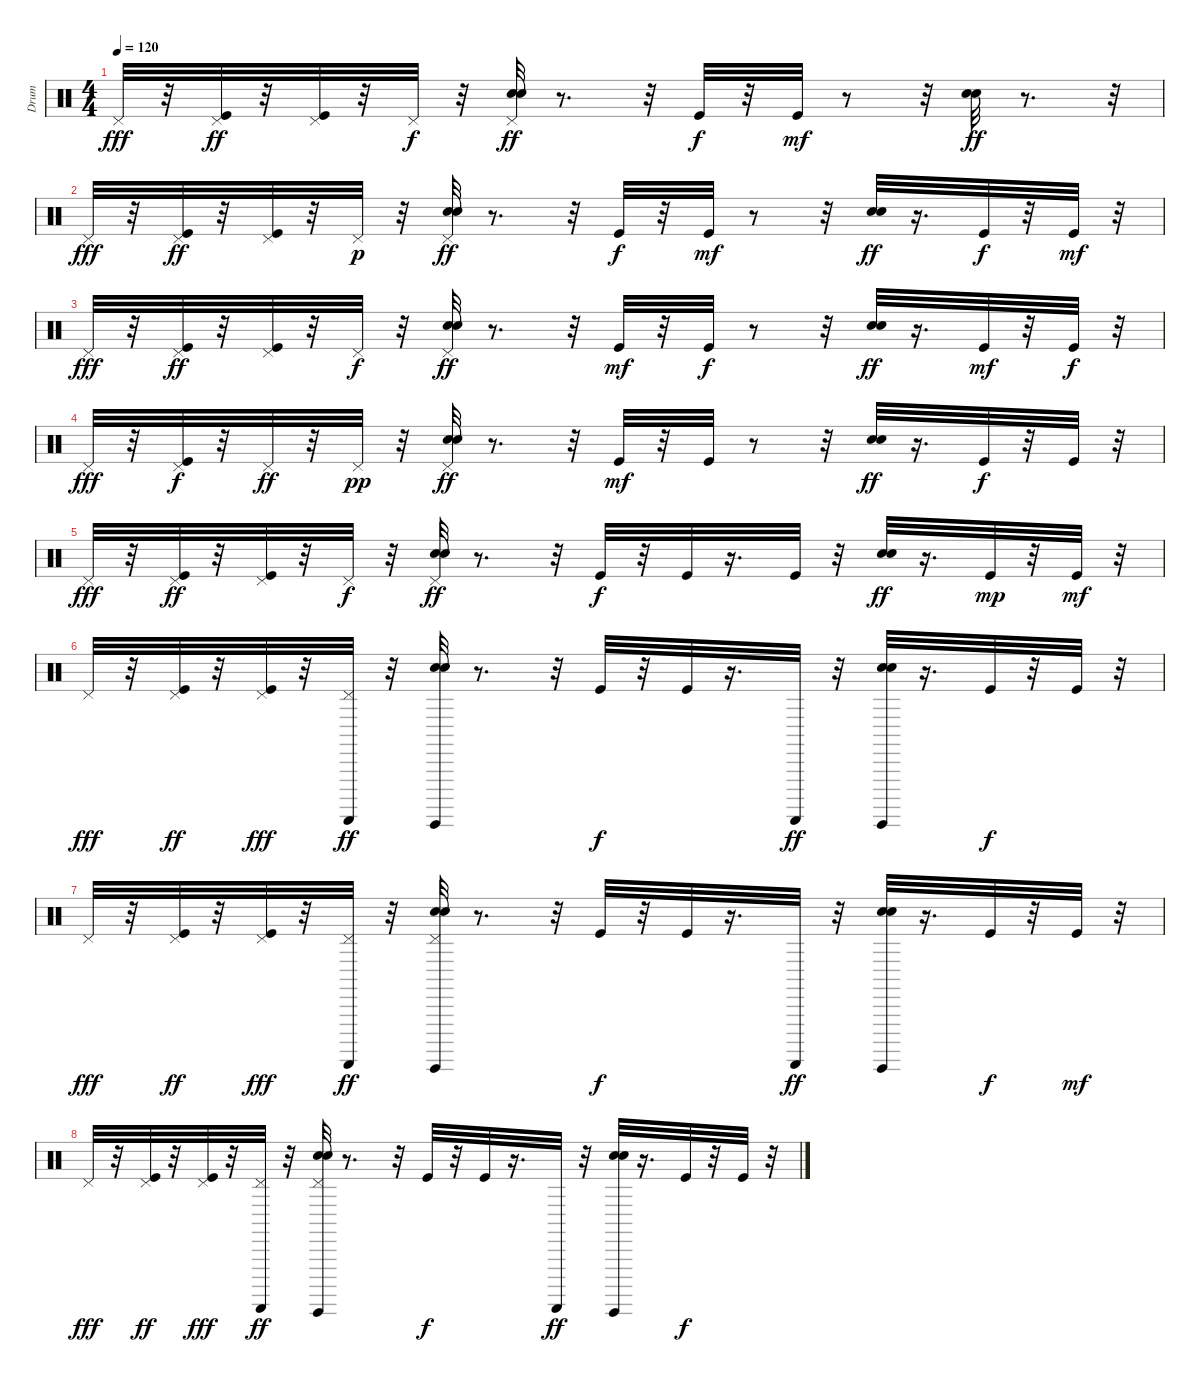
\track ("Drum" "Drum") {instrument percussion}
\staff {score}
\articulation defaults
\ts (4 4)
\tempo 120
\clef neutral
\ks c "Pedal Hi-Hat (hit)".32{dy fff}
r.32 ("Kick (hit)" "Pedal Hi-Hat (hit)").32{dy ff} r.32 ("Kick (hit)" "Pedal Hi-Hat (hit)").32 r.32 "Pedal Hi-Hat (hit)".32{dy f} r.32 ("Snare (hit) 2" "Electric Snare (hit)" "Pedal Hi-Hat (hit)").32{dy ff} r.8{d} r.32 "Kick (hit)".32{dy f} r.32 "Kick (hit)".32{dy mf} r.8 r.32 ("Snare (hit) 2" "Electric Snare (hit)").32{dy ff} r.8{d} r.32 |
"Pedal Hi-Hat (hit)".32{dy fff} r.32 ("Kick (hit)" "Pedal Hi-Hat (hit)").32{dy ff} r.32 ("Kick (hit)" "Pedal Hi-Hat (hit)").32 r.32 "Pedal Hi-Hat (hit)".32{dy p} r.32 ("Snare (hit) 2" "Electric Snare (hit)" "Pedal Hi-Hat (hit)").32{dy ff} r.8{d} r.32 "Kick (hit)".32{dy f} r.32 "Kick (hit)".32{dy mf} r.8 r.32 ("Snare (hit) 2" "Electric Snare (hit)").32{dy ff} r.16{d} "Kick (hit)".32{dy f} r.32 "Kick (hit)".32{dy mf} r.32 |
"Pedal Hi-Hat (hit)".32{dy fff} r.32 ("Pedal Hi-Hat (hit)" "Kick (hit)").32{dy ff} r.32 ("Kick (hit)" "Pedal Hi-Hat (hit)").32 r.32 "Pedal Hi-Hat (hit)".32{dy f} r.32 ("Electric Snare (hit)" "Snare (hit) 2" "Pedal Hi-Hat (hit)").32{dy ff} r.8{d} r.32 "Kick (hit)".32{dy mf} r.32 "Kick (hit)".32{dy f} r.8 r.32 ("Electric Snare (hit)" "Snare (hit) 2").32{dy ff} r.16{d} "Kick (hit)".32{dy mf} r.32 "Kick (hit)".32{dy f} r.32 |
"Pedal Hi-Hat (hit)".32{dy fff} r.32 ("Pedal Hi-Hat (hit)" "Kick (hit)").32{dy f} r.32 "Pedal Hi-Hat (hit)".32{dy ff} r.32 "Pedal Hi-Hat (hit)".32{dy pp} r.32 ("Electric Snare (hit)" "Snare (hit) 2" "Pedal Hi-Hat (hit)").32{dy ff} r.8{d} r.32 "Kick (hit)".32{dy mf} r.32 "Kick (hit)".32 r.8 r.32 ("Snare (hit) 2" "Electric Snare (hit)").32{dy ff} r.16{d} "Kick (hit)".32{dy f} r.32 "Kick (hit)".32 r.32 |
"Pedal Hi-Hat (hit)".32{dy fff} r.32 ("Kick (hit)" "Pedal Hi-Hat (hit)").32{dy ff} r.32 ("Kick (hit)" "Pedal Hi-Hat (hit)").32 r.32 "Pedal Hi-Hat (hit)".32{dy f} r.32 ("Snare (hit) 2" "Electric Snare (hit)" "Pedal Hi-Hat (hit)").32{dy ff} r.8{d} r.32 "Kick (hit)".32{dy f} r.32 "Kick (hit)".32 r.16{d} "Kick (hit)".32 r.32 ("Snare (hit) 2" "Electric Snare (hit)").32{dy ff} r.16{d} "Kick (hit)".32{dy mp} r.32 "Kick (hit)".32{dy mf} r.32 |
"Pedal Hi-Hat (hit)".32{dy fff} r.32 ("Kick (hit)" "Pedal Hi-Hat (hit)").32{dy ff} r.32 ("Kick (hit)" "Pedal Hi-Hat (hit)").32{dy fff} r.32 ("Guiro (scrap-return)" "Pedal Hi-Hat (hit)").32{dy ff} r.32 ("Guiro (hit)" "Snare (hit) 2" "Electric Snare (hit)").32 r.8{d} r.32 "Kick (hit)".32{dy f} r.32 "Kick (hit)".32 r.16{d} "Guiro (scrap-return)".32{dy ff} r.32 ("Guiro (hit)" "Snare (hit) 2" "Electric Snare (hit)").32 r.16{d} "Kick (hit)".32{dy f} r.32 "Kick (hit)".32 r.32 |
"Pedal Hi-Hat (hit)".32{dy fff} r.32 ("Kick (hit)" "Pedal Hi-Hat (hit)").32{dy ff} r.32 ("Kick (hit)" "Pedal Hi-Hat (hit)").32{dy fff} r.32 ("Guiro (scrap-return)" "Pedal Hi-Hat (hit)").32{dy ff} r.32 ("Guiro (hit)" "Snare (hit) 2" "Electric Snare (hit)" "Pedal Hi-Hat (hit)").32 r.8{d} r.32 "Kick (hit)".32{dy f} r.32 "Kick (hit)".32 r.16{d} "Guiro (scrap-return)".32{dy ff} r.32 ("Guiro (hit)" "Snare (hit) 2" "Electric Snare (hit)").32 r.16{d} "Kick (hit)".32{dy f} r.32 "Kick (hit)".32{dy mf} r.32 |
"Pedal Hi-Hat (hit)".32{dy fff} r.32 ("Kick (hit)" "Pedal Hi-Hat (hit)").32{dy ff} r.32 ("Kick (hit)" "Pedal Hi-Hat (hit)").32{dy fff} r.32 ("Guiro (scrap-return)" "Pedal Hi-Hat (hit)").32{dy ff} r.32 ("Guiro (hit)" "Snare (hit) 2" "Electric Snare (hit)" "Pedal Hi-Hat (hit)").32 r.8{d} r.32 "Kick (hit)".32{dy f} r.32 "Kick (hit)".32 r.16{d} "Guiro (scrap-return)".32{dy ff} r.32 ("Guiro (hit)" "Snare (hit) 2" "Electric Snare (hit)").32 r.16{d} "Kick (hit)".32{dy f} r.32 "Kick (hit)".32 r.32
